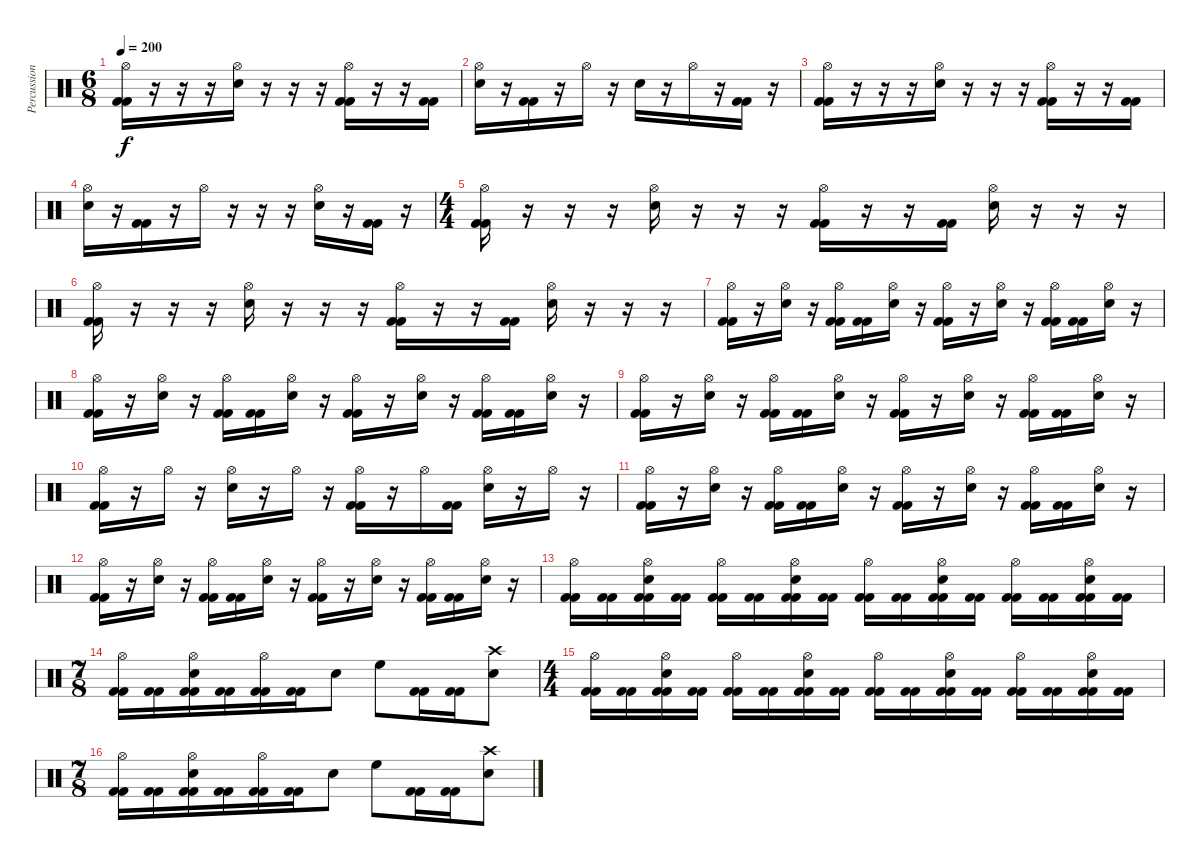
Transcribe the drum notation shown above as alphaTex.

\track ("Percussions" "Percussion") {instrument percussion}
\staff {score}
\articulation defaults
\ts (6 8)
\tempo 200
\clef neutral
\ks c
("Hi-Hat (open)" "Kick (hit) 2" "Kick (hit) 2").16{dy f} r.16 r.16 r.16 ("Hi-Hat (open)" "Electric Snare (hit)").16 r.16 r.16 r.16 ("Hi-Hat (open)" "Kick (hit) 2" "Kick (hit) 2").16 r.16 r.16 ("Kick (hit) 2" "Kick (hit) 2").16 |
("Hi-Hat (open)" "Electric Snare (hit)").16 r.16 ("Kick (hit) 2" "Kick (hit) 2").16 r.16 "Hi-Hat (open)".16 r.16 "Electric Snare (hit)".16 r.16 "Hi-Hat (open)".16 r.16 ("Kick (hit) 2" "Kick (hit) 2").16 r.16 |
("Hi-Hat (open)" "Kick (hit) 2" "Kick (hit) 2").16 r.16 r.16 r.16 ("Hi-Hat (open)" "Electric Snare (hit)").16 r.16 r.16 r.16 ("Hi-Hat (open)" "Kick (hit) 2" "Kick (hit) 2").16 r.16 r.16 ("Kick (hit) 2" "Kick (hit) 2").16 |
("Hi-Hat (open)" "Electric Snare (hit)").16 r.16 ("Kick (hit) 2" "Kick (hit) 2").16 r.16 "Hi-Hat (open)".16 r.16 r.16 r.16 ("Hi-Hat (open)" "Electric Snare (hit)").16 r.16 ("Kick (hit) 2" "Kick (hit) 2").16 r.16 |
\ts (4 4)
("Hi-Hat (open)" "Kick (hit) 2" "Kick (hit) 2").16 r.16 r.16 r.16 ("Hi-Hat (open)" "Electric Snare (hit)").16 r.16 r.16 r.16 ("Hi-Hat (open)" "Kick (hit) 2" "Kick (hit) 2").16 r.16 r.16 ("Kick (hit) 2" "Kick (hit) 2").16 ("Hi-Hat (open)" "Electric Snare (hit)").16 r.16 r.16 r.16 |
("Hi-Hat (open)" "Kick (hit) 2" "Kick (hit) 2").16 r.16 r.16 r.16 ("Hi-Hat (open)" "Electric Snare (hit)").16 r.16 r.16 r.16 ("Hi-Hat (open)" "Kick (hit) 2" "Kick (hit) 2").16 r.16 r.16 ("Kick (hit) 2" "Kick (hit) 2").16 ("Hi-Hat (open)" "Electric Snare (hit)").16 r.16 r.16 r.16 |
("Kick (hit) 2" "Kick (hit) 2" "Hi-Hat (open)").16 r.16 ("Electric Snare (hit)" "Hi-Hat (open)").16 r.16 ("Kick (hit) 2" "Kick (hit) 2" "Hi-Hat (open)").16 ("Kick (hit) 2" "Kick (hit) 2").16 ("Electric Snare (hit)" "Hi-Hat (open)").16 r.16 ("Kick (hit) 2" "Kick (hit) 2" "Hi-Hat (open)").16 r.16 ("Electric Snare (hit)" "Hi-Hat (open)").16 r.16 ("Kick (hit) 2" "Kick (hit) 2" "Hi-Hat (open)").16 ("Kick (hit) 2" "Kick (hit) 2").16 ("Electric Snare (hit)" "Hi-Hat (open)").16 r.16 |
("Kick (hit) 2" "Kick (hit) 2" "Hi-Hat (open)").16 r.16 ("Electric Snare (hit)" "Hi-Hat (open)").16 r.16 ("Kick (hit) 2" "Kick (hit) 2" "Hi-Hat (open)").16 ("Kick (hit) 2" "Kick (hit) 2").16 ("Electric Snare (hit)" "Hi-Hat (open)").16 r.16 ("Kick (hit) 2" "Kick (hit) 2" "Hi-Hat (open)").16 r.16 ("Electric Snare (hit)" "Hi-Hat (open)").16 r.16 ("Kick (hit) 2" "Kick (hit) 2" "Hi-Hat (open)").16 ("Kick (hit) 2" "Kick (hit) 2").16 ("Electric Snare (hit)" "Hi-Hat (open)").16 r.16 |
("Kick (hit) 2" "Kick (hit) 2" "Hi-Hat (open)").16 r.16 ("Electric Snare (hit)" "Hi-Hat (open)").16 r.16 ("Kick (hit) 2" "Kick (hit) 2" "Hi-Hat (open)").16 ("Kick (hit) 2" "Kick (hit) 2").16 ("Electric Snare (hit)" "Hi-Hat (open)").16 r.16 ("Kick (hit) 2" "Kick (hit) 2" "Hi-Hat (open)").16 r.16 ("Electric Snare (hit)" "Hi-Hat (open)").16 r.16 ("Kick (hit) 2" "Kick (hit) 2" "Hi-Hat (open)").16 ("Kick (hit) 2" "Kick (hit) 2").16 ("Electric Snare (hit)" "Hi-Hat (open)").16 r.16 |
("Hi-Hat (open)" "Kick (hit) 2" "Kick (hit) 2").16 r.16 "Hi-Hat (open)".16 r.16 ("Hi-Hat (open)" "Electric Snare (hit)").16 r.16 "Hi-Hat (open)".16 r.16 ("Hi-Hat (open)" "Kick (hit) 2" "Kick (hit) 2").16 r.16 "Hi-Hat (open)".16 ("Kick (hit) 2" "Kick (hit) 2").16 ("Hi-Hat (open)" "Electric Snare (hit)").16 r.16 "Hi-Hat (open)".16 r.16 |
("Kick (hit) 2" "Kick (hit) 2" "Hi-Hat (open)").16 r.16 ("Electric Snare (hit)" "Hi-Hat (open)").16 r.16 ("Kick (hit) 2" "Kick (hit) 2" "Hi-Hat (open)").16 ("Kick (hit) 2" "Kick (hit) 2").16 ("Electric Snare (hit)" "Hi-Hat (open)").16 r.16 ("Kick (hit) 2" "Kick (hit) 2" "Hi-Hat (open)").16 r.16 ("Electric Snare (hit)" "Hi-Hat (open)").16 r.16 ("Kick (hit) 2" "Kick (hit) 2" "Hi-Hat (open)").16 ("Kick (hit) 2" "Kick (hit) 2").16 ("Electric Snare (hit)" "Hi-Hat (open)").16 r.16 |
("Kick (hit) 2" "Kick (hit) 2" "Hi-Hat (open)").16 r.16 ("Electric Snare (hit)" "Hi-Hat (open)").16 r.16 ("Kick (hit) 2" "Kick (hit) 2" "Hi-Hat (open)").16 ("Kick (hit) 2" "Kick (hit) 2").16 ("Electric Snare (hit)" "Hi-Hat (open)").16 r.16 ("Kick (hit) 2" "Kick (hit) 2" "Hi-Hat (open)").16 r.16 ("Electric Snare (hit)" "Hi-Hat (open)").16 r.16 ("Kick (hit) 2" "Kick (hit) 2" "Hi-Hat (open)").16 ("Kick (hit) 2" "Kick (hit) 2").16 ("Electric Snare (hit)" "Hi-Hat (open)").16 r.16 |
("Kick (hit) 2" "Kick (hit) 2" "Hi-Hat (open)").16 ("Kick (hit) 2" "Kick (hit) 2").16 ("Kick (hit) 2" "Kick (hit) 2" "Electric Snare (hit)" "Hi-Hat (open)").16 ("Kick (hit) 2" "Kick (hit) 2").16 ("Kick (hit) 2" "Kick (hit) 2" "Hi-Hat (open)").16 ("Kick (hit) 2" "Kick (hit) 2").16 ("Kick (hit) 2" "Kick (hit) 2" "Electric Snare (hit)" "Hi-Hat (open)").16 ("Kick (hit) 2" "Kick (hit) 2").16 ("Kick (hit) 2" "Kick (hit) 2" "Hi-Hat (open)").16 ("Kick (hit) 2" "Kick (hit) 2").16 ("Kick (hit) 2" "Kick (hit) 2" "Electric Snare (hit)" "Hi-Hat (open)").16 ("Kick (hit) 2" "Kick (hit) 2").16 ("Kick (hit) 2" "Kick (hit) 2" "Hi-Hat (open)").16 ("Kick (hit) 2" "Kick (hit) 2").16 ("Kick (hit) 2" "Kick (hit) 2" "Electric Snare (hit)" "Hi-Hat (open)").16 ("Kick (hit) 2" "Kick (hit) 2").16 |
\ts (7 8)
("Kick (hit) 2" "Kick (hit) 2" "Hi-Hat (open)").16 ("Kick (hit) 2" "Kick (hit) 2").16 ("Kick (hit) 2" "Kick (hit) 2" "Electric Snare (hit)" "Hi-Hat (open)").16 ("Kick (hit) 2" "Kick (hit) 2").16 ("Kick (hit) 2" "Kick (hit) 2" "Hi-Hat (open)").16 ("Kick (hit) 2" "Kick (hit) 2").16 "Electric Snare (hit)".8 "High Floor Tom (hit)".8 ("Kick (hit) 2" "Kick (hit) 2").16 ("Kick (hit) 2" "Kick (hit) 2").16 ("Electric Snare (hit)" "Crash high (hit)").8 |
\ts (4 4)
("Kick (hit) 2" "Kick (hit) 2" "Hi-Hat (open)").16 ("Kick (hit) 2" "Kick (hit) 2").16 ("Kick (hit) 2" "Kick (hit) 2" "Electric Snare (hit)" "Hi-Hat (open)").16 ("Kick (hit) 2" "Kick (hit) 2").16 ("Kick (hit) 2" "Kick (hit) 2" "Hi-Hat (open)").16 ("Kick (hit) 2" "Kick (hit) 2").16 ("Kick (hit) 2" "Kick (hit) 2" "Electric Snare (hit)" "Hi-Hat (open)").16 ("Kick (hit) 2" "Kick (hit) 2").16 ("Kick (hit) 2" "Kick (hit) 2" "Hi-Hat (open)").16 ("Kick (hit) 2" "Kick (hit) 2").16 ("Kick (hit) 2" "Kick (hit) 2" "Electric Snare (hit)" "Hi-Hat (open)").16 ("Kick (hit) 2" "Kick (hit) 2").16 ("Kick (hit) 2" "Kick (hit) 2" "Hi-Hat (open)").16 ("Kick (hit) 2" "Kick (hit) 2").16 ("Kick (hit) 2" "Kick (hit) 2" "Electric Snare (hit)" "Hi-Hat (open)").16 ("Kick (hit) 2" "Kick (hit) 2").16 |
\ts (7 8)
("Kick (hit) 2" "Kick (hit) 2" "Hi-Hat (open)").16 ("Kick (hit) 2" "Kick (hit) 2").16 ("Kick (hit) 2" "Kick (hit) 2" "Electric Snare (hit)" "Hi-Hat (open)").16 ("Kick (hit) 2" "Kick (hit) 2").16 ("Kick (hit) 2" "Kick (hit) 2" "Hi-Hat (open)").16 ("Kick (hit) 2" "Kick (hit) 2").16 "Electric Snare (hit)".8 "High Floor Tom (hit)".8 ("Kick (hit) 2" "Kick (hit) 2").16 ("Kick (hit) 2" "Kick (hit) 2").16 ("Electric Snare (hit)" "Crash high (hit)").8
